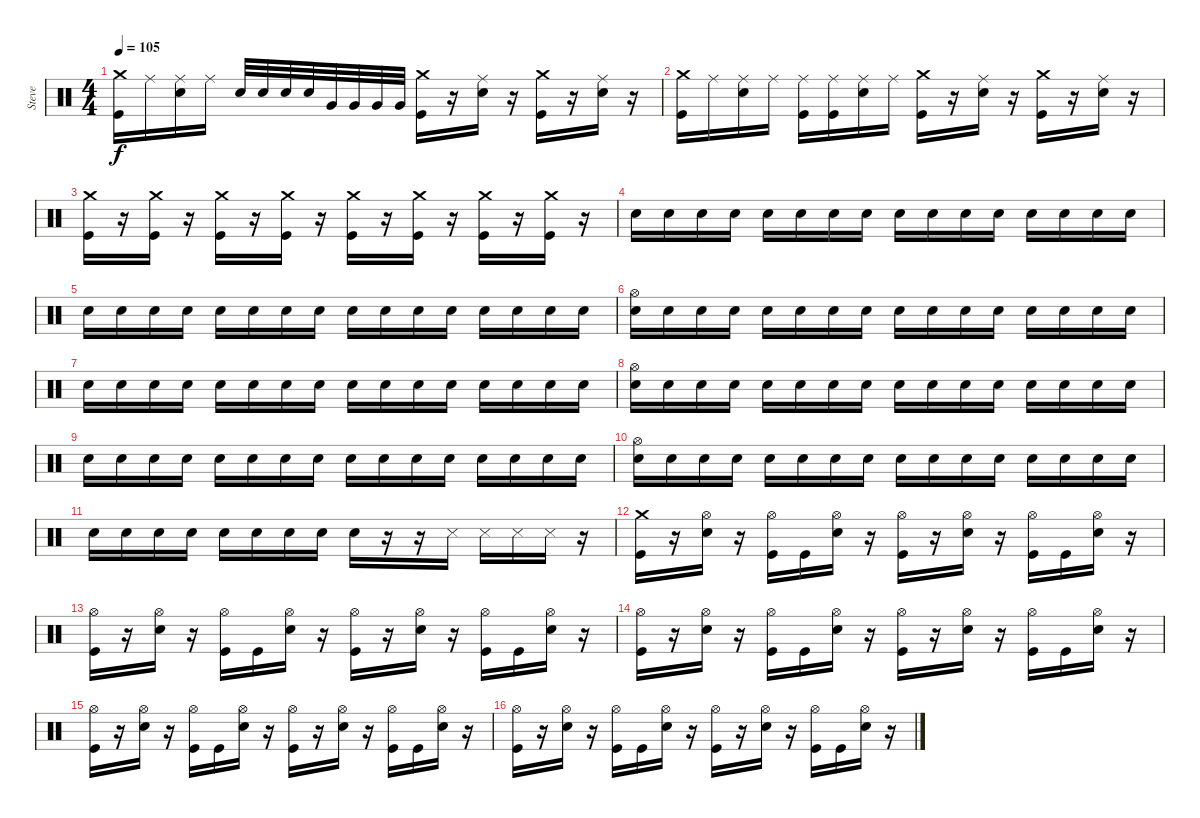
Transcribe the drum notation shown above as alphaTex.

\track ("Steve" "Steve") {instrument percussion}
\staff {score}
\articulation defaults
\ts (4 4)
\tempo 105
\clef neutral
\ks c
("Crash medium (hit)" "Kick (hit)").16{dy f} "Ride (middle)".16 ("Ride (middle)" "Electric Snare (hit)").16 "Ride (middle)".16 "Electric Snare (hit)".32 "Electric Snare (hit)".32 "Electric Snare (hit)".32 "Electric Snare (hit)".32 "Very Low Tom (hit)".32 "Very Low Tom (hit)".32 "Very Low Tom (hit)".32 "Very Low Tom (hit)".32 ("Crash medium (hit)" "Kick (hit)").16 r.16 ("Ride (middle)" "Electric Snare (hit)").16 r.16 ("Crash medium (hit)" "Kick (hit)").16 r.16 ("Ride (middle)" "Electric Snare (hit)").16 r.16 |
("Crash medium (hit)" "Kick (hit)").16 "Ride (middle)".16 ("Ride (middle)" "Electric Snare (hit)").16 "Ride (middle)".16 ("Ride (middle)" "Kick (hit)").16 ("Ride (middle)" "Kick (hit)").16 ("Ride (middle)" "Electric Snare (hit)").16 "Ride (middle)".16 ("Crash medium (hit)" "Kick (hit)").16 r.16 ("Ride (middle)" "Electric Snare (hit)").16 r.16 ("Crash medium (hit)" "Kick (hit)").16 r.16 ("Ride (middle)" "Electric Snare (hit)").16 r.16 |
("Crash medium (hit)" "Kick (hit)").16 r.16 ("Crash medium (hit)" "Kick (hit)").16 r.16 ("Crash medium (hit)" "Kick (hit)").16 r.16 ("Crash medium (hit)" "Kick (hit)").16 r.16 ("Crash medium (hit)" "Kick (hit)").16 r.16 ("Crash medium (hit)" "Kick (hit)").16 r.16 ("Crash medium (hit)" "Kick (hit)").16 r.16 ("Crash medium (hit)" "Kick (hit)").16 r.16 |
"Electric Snare (hit)".16 "Electric Snare (hit)".16 "Electric Snare (hit)".16 "Electric Snare (hit)".16 "Electric Snare (hit)".16 "Electric Snare (hit)".16 "Electric Snare (hit)".16 "Electric Snare (hit)".16 "Electric Snare (hit)".16 "Electric Snare (hit)".16 "Electric Snare (hit)".16 "Electric Snare (hit)".16 "Electric Snare (hit)".16 "Electric Snare (hit)".16 "Electric Snare (hit)".16 "Electric Snare (hit)".16 |
"Electric Snare (hit)".16 "Electric Snare (hit)".16 "Electric Snare (hit)".16 "Electric Snare (hit)".16 "Electric Snare (hit)".16 "Electric Snare (hit)".16 "Electric Snare (hit)".16 "Electric Snare (hit)".16 "Electric Snare (hit)".16 "Electric Snare (hit)".16 "Electric Snare (hit)".16 "Electric Snare (hit)".16 "Electric Snare (hit)".16 "Electric Snare (hit)".16 "Electric Snare (hit)".16 "Electric Snare (hit)".16 |
("Hi-Hat (open)" "Electric Snare (hit)").16 "Electric Snare (hit)".16 "Electric Snare (hit)".16 "Electric Snare (hit)".16 "Electric Snare (hit)".16 "Electric Snare (hit)".16 "Electric Snare (hit)".16 "Electric Snare (hit)".16 "Electric Snare (hit)".16 "Electric Snare (hit)".16 "Electric Snare (hit)".16 "Electric Snare (hit)".16 "Electric Snare (hit)".16 "Electric Snare (hit)".16 "Electric Snare (hit)".16 "Electric Snare (hit)".16 |
"Electric Snare (hit)".16 "Electric Snare (hit)".16 "Electric Snare (hit)".16 "Electric Snare (hit)".16 "Electric Snare (hit)".16 "Electric Snare (hit)".16 "Electric Snare (hit)".16 "Electric Snare (hit)".16 "Electric Snare (hit)".16 "Electric Snare (hit)".16 "Electric Snare (hit)".16 "Electric Snare (hit)".16 "Electric Snare (hit)".16 "Electric Snare (hit)".16 "Electric Snare (hit)".16 "Electric Snare (hit)".16 |
("Hi-Hat (open)" "Electric Snare (hit)").16 "Electric Snare (hit)".16 "Electric Snare (hit)".16 "Electric Snare (hit)".16 "Electric Snare (hit)".16 "Electric Snare (hit)".16 "Electric Snare (hit)".16 "Electric Snare (hit)".16 "Electric Snare (hit)".16 "Electric Snare (hit)".16 "Electric Snare (hit)".16 "Electric Snare (hit)".16 "Electric Snare (hit)".16 "Electric Snare (hit)".16 "Electric Snare (hit)".16 "Electric Snare (hit)".16 |
"Electric Snare (hit)".16 "Electric Snare (hit)".16 "Electric Snare (hit)".16 "Electric Snare (hit)".16 "Electric Snare (hit)".16 "Electric Snare (hit)".16 "Electric Snare (hit)".16 "Electric Snare (hit)".16 "Electric Snare (hit)".16 "Electric Snare (hit)".16 "Electric Snare (hit)".16 "Electric Snare (hit)".16 "Electric Snare (hit)".16 "Electric Snare (hit)".16 "Electric Snare (hit)".16 "Electric Snare (hit)".16 |
("Hi-Hat (open)" "Electric Snare (hit)").16 "Electric Snare (hit)".16 "Electric Snare (hit)".16 "Electric Snare (hit)".16 "Electric Snare (hit)".16 "Electric Snare (hit)".16 "Electric Snare (hit)".16 "Electric Snare (hit)".16 "Electric Snare (hit)".16 "Electric Snare (hit)".16 "Electric Snare (hit)".16 "Electric Snare (hit)".16 "Electric Snare (hit)".16 "Electric Snare (hit)".16 "Electric Snare (hit)".16 "Electric Snare (hit)".16 |
"Electric Snare (hit)".16 "Electric Snare (hit)".16 "Electric Snare (hit)".16 "Electric Snare (hit)".16 "Electric Snare (hit)".16 "Electric Snare (hit)".16 "Electric Snare (hit)".16 "Electric Snare (hit)".16 "Electric Snare (hit)".16 r.16 r.16 "Metronome (hit)".16 "Metronome (hit)".16 "Metronome (hit)".16 "Metronome (hit)".16 r.16 |
("Crash medium (hit)" "Kick (hit)").16 r.16 ("Hi-Hat (open)" "Electric Snare (hit)").16 r.16 ("Hi-Hat (open)" "Kick (hit)").16 "Kick (hit)".16 ("Hi-Hat (open)" "Electric Snare (hit)").16 r.16 ("Hi-Hat (open)" "Kick (hit)").16 r.16 ("Hi-Hat (open)" "Electric Snare (hit)").16 r.16 ("Hi-Hat (open)" "Kick (hit)").16 "Kick (hit)".16 ("Hi-Hat (open)" "Electric Snare (hit)").16 r.16 |
("Hi-Hat (open)" "Kick (hit)").16 r.16 ("Hi-Hat (open)" "Electric Snare (hit)").16 r.16 ("Hi-Hat (open)" "Kick (hit)").16 "Kick (hit)".16 ("Hi-Hat (open)" "Electric Snare (hit)").16 r.16 ("Hi-Hat (open)" "Kick (hit)").16 r.16 ("Hi-Hat (open)" "Electric Snare (hit)").16 r.16 ("Hi-Hat (open)" "Kick (hit)").16 "Kick (hit)".16 ("Hi-Hat (open)" "Electric Snare (hit)").16 r.16 |
("Hi-Hat (open)" "Kick (hit)").16 r.16 ("Hi-Hat (open)" "Electric Snare (hit)").16 r.16 ("Hi-Hat (open)" "Kick (hit)").16 "Kick (hit)".16 ("Hi-Hat (open)" "Electric Snare (hit)").16 r.16 ("Hi-Hat (open)" "Kick (hit)").16 r.16 ("Hi-Hat (open)" "Electric Snare (hit)").16 r.16 ("Hi-Hat (open)" "Kick (hit)").16 "Kick (hit)".16 ("Hi-Hat (open)" "Electric Snare (hit)").16 r.16 |
("Hi-Hat (open)" "Kick (hit)").16 r.16 ("Hi-Hat (open)" "Electric Snare (hit)").16 r.16 ("Hi-Hat (open)" "Kick (hit)").16 "Kick (hit)".16 ("Hi-Hat (open)" "Electric Snare (hit)").16 r.16 ("Hi-Hat (open)" "Kick (hit)").16 r.16 ("Hi-Hat (open)" "Electric Snare (hit)").16 r.16 ("Hi-Hat (open)" "Kick (hit)").16 "Kick (hit)".16 ("Hi-Hat (open)" "Electric Snare (hit)").16 r.16 |
("Hi-Hat (open)" "Kick (hit)").16 r.16 ("Hi-Hat (open)" "Electric Snare (hit)").16 r.16 ("Hi-Hat (open)" "Kick (hit)").16 "Kick (hit)".16 ("Hi-Hat (open)" "Electric Snare (hit)").16 r.16 ("Hi-Hat (open)" "Kick (hit)").16 r.16 ("Hi-Hat (open)" "Electric Snare (hit)").16 r.16 ("Hi-Hat (open)" "Kick (hit)").16 "Kick (hit)".16 ("Hi-Hat (open)" "Electric Snare (hit)").16 r.16
